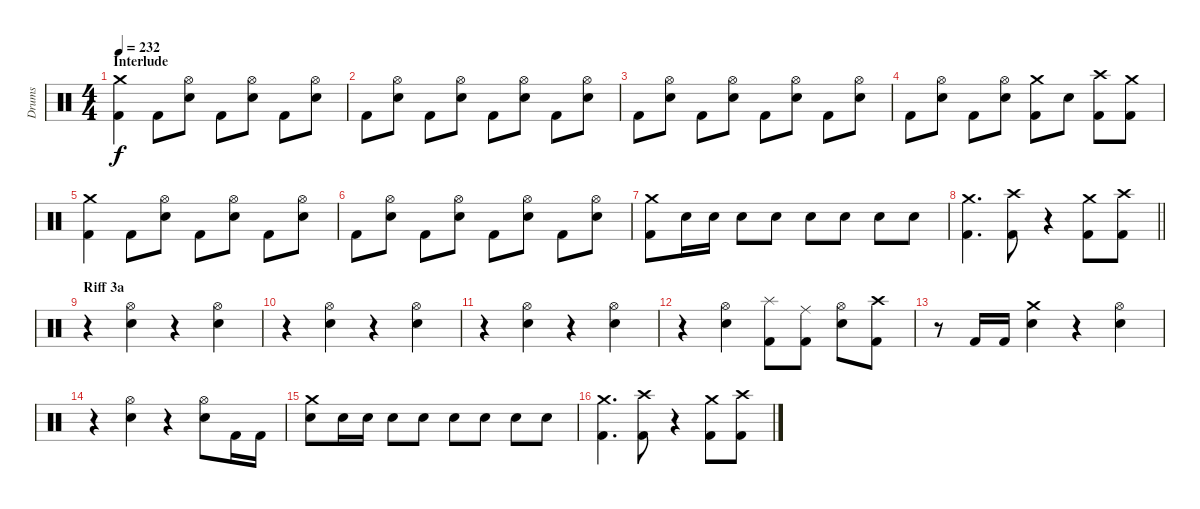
\track ("Drums" "Drums") {instrument percussion}
\staff {score}
\articulation defaults
\ts (4 4)
\section ("" "Interlude")
\tempo 232
\clef neutral
\ks c
("Kick (hit) 2" "Crash medium (hit)").4{dy f} "Kick (hit) 2".8 ("Electric Snare (hit)" "Hi-Hat (open)").8 "Kick (hit) 2".8 ("Electric Snare (hit)" "Hi-Hat (open)").8 "Kick (hit) 2".8 ("Electric Snare (hit)" "Hi-Hat (open)").8 |
"Kick (hit) 2".8 ("Electric Snare (hit)" "Hi-Hat (open)").8 "Kick (hit) 2".8 ("Electric Snare (hit)" "Hi-Hat (open)").8 "Kick (hit) 2".8 ("Electric Snare (hit)" "Hi-Hat (open)").8 "Kick (hit) 2".8 ("Electric Snare (hit)" "Hi-Hat (open)").8 |
"Kick (hit) 2".8 ("Electric Snare (hit)" "Hi-Hat (open)").8 "Kick (hit) 2".8 ("Electric Snare (hit)" "Hi-Hat (open)").8 "Kick (hit) 2".8 ("Electric Snare (hit)" "Hi-Hat (open)").8 "Kick (hit) 2".8 ("Electric Snare (hit)" "Hi-Hat (open)").8 |
"Kick (hit) 2".8 ("Electric Snare (hit)" "Hi-Hat (open)").8 "Kick (hit) 2".8 ("Electric Snare (hit)" "Hi-Hat (open)").8 ("Kick (hit) 2" "Crash medium (hit)").8 "Electric Snare (hit)".8 ("Kick (hit) 2" "Crash high (hit)").8 ("Kick (hit) 2" "Crash medium (hit)").8 |
("Kick (hit) 2" "Crash medium (hit)").4 "Kick (hit) 2".8 ("Electric Snare (hit)" "Hi-Hat (open)").8 "Kick (hit) 2".8 ("Electric Snare (hit)" "Hi-Hat (open)").8 "Kick (hit) 2".8 ("Electric Snare (hit)" "Hi-Hat (open)").8 |
"Kick (hit) 2".8 ("Electric Snare (hit)" "Hi-Hat (open)").8 "Kick (hit) 2".8 ("Electric Snare (hit)" "Hi-Hat (open)").8 "Kick (hit) 2".8 ("Electric Snare (hit)" "Hi-Hat (open)").8 "Kick (hit) 2".8 ("Electric Snare (hit)" "Hi-Hat (open)").8 |
("Kick (hit) 2" "Crash medium (hit)").8 "Electric Snare (hit)".16 "Electric Snare (hit)".16 "Electric Snare (hit)".8 "Electric Snare (hit)".8 "Electric Snare (hit)".8 "Electric Snare (hit)".8 "Electric Snare (hit)".8 "Electric Snare (hit)".8 |
\barLineRight lightlight
("Crash medium (hit)" "Kick (hit) 2").4{d} ("Crash high (hit)" "Kick (hit) 2").8 r.4 ("Kick (hit) 2" "Crash medium (hit)").8 ("Crash high (hit)" "Kick (hit) 2").8 |
\section ("" "Riff 3a")
r.4 ("Hi-Hat (open)" "Electric Snare (hit)").4 r.4 ("Hi-Hat (open)" "Electric Snare (hit)").4 |
r.4 ("Hi-Hat (open)" "Electric Snare (hit)").4 r.4 ("Hi-Hat (open)" "Electric Snare (hit)").4 |
r.4 ("Hi-Hat (open)" "Electric Snare (hit)").4 r.4 ("Hi-Hat (open)" "Electric Snare (hit)").4 |
r.4 ("Hi-Hat (open)" "Electric Snare (hit)").4 ("Splash (hit)" "Kick (hit) 2").8 ("Ride (middle)" "Kick (hit) 2").8 ("Hi-Hat (open)" "Electric Snare (hit)").8 ("Crash high (hit)" "Kick (hit) 2").8 |
r.8 "Kick (hit) 2".16 "Kick (hit) 2".16 ("Electric Snare (hit)" "Crash medium (hit)").4 r.4 ("Hi-Hat (open)" "Electric Snare (hit)").4 |
r.4 ("Hi-Hat (open)" "Electric Snare (hit)").4 r.4 ("Hi-Hat (open)" "Electric Snare (hit)").8 "Kick (hit) 2".16 "Kick (hit) 2".16 |
("Electric Snare (hit)" "Crash medium (hit)").8 "Electric Snare (hit)".16 "Electric Snare (hit)".16 "Electric Snare (hit)".8 "Electric Snare (hit)".8 "Electric Snare (hit)".8 "Electric Snare (hit)".8 "Electric Snare (hit)".8 "Electric Snare (hit)".8 |
("Crash medium (hit)" "Kick (hit) 2").4{d} ("Crash high (hit)" "Kick (hit) 2").8 r.4 ("Kick (hit) 2" "Crash medium (hit)").8 ("Crash high (hit)" "Kick (hit) 2").8
